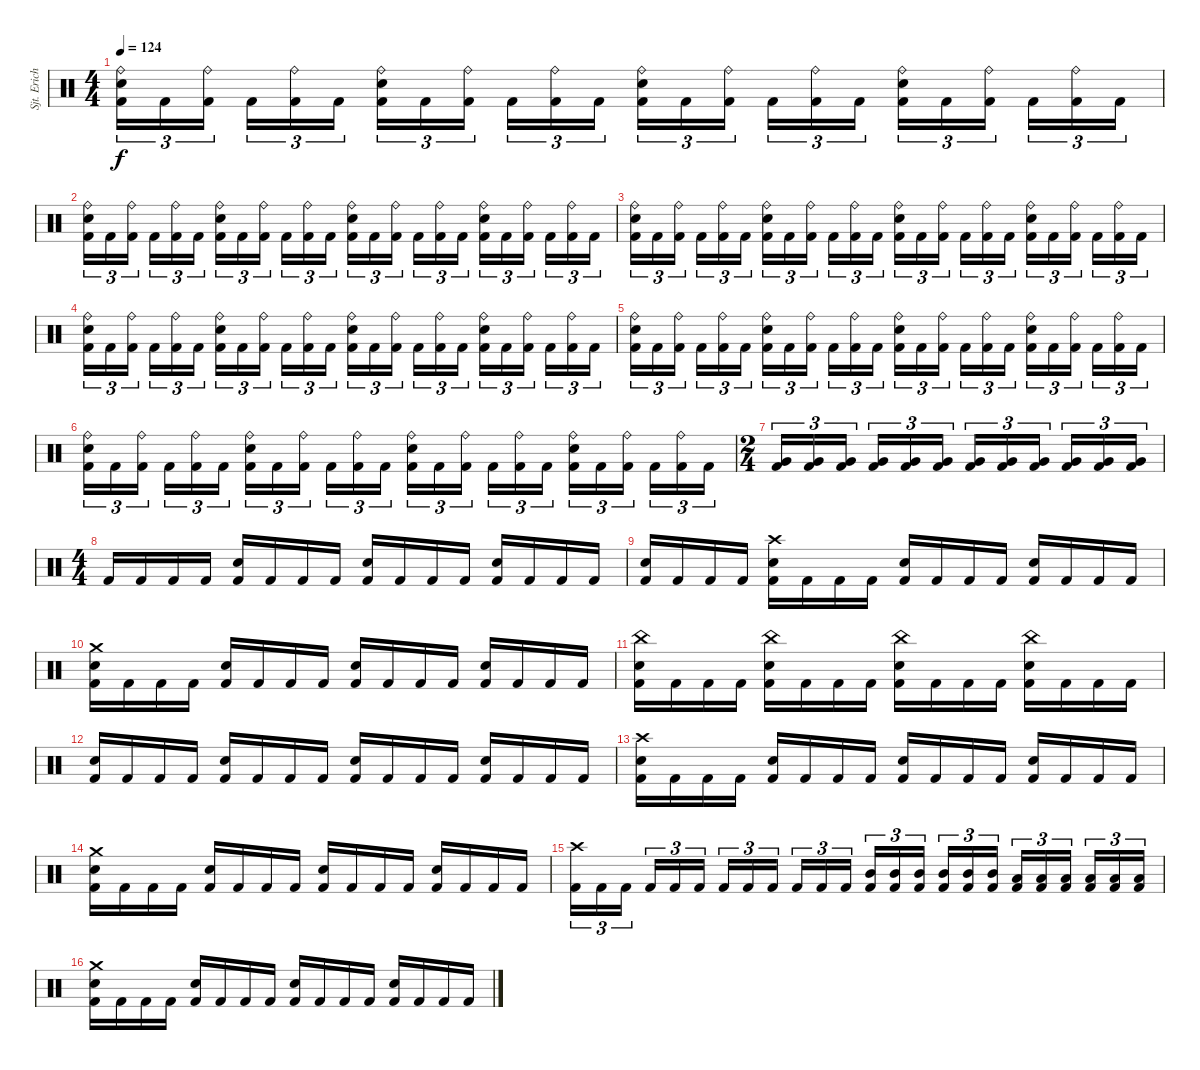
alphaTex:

\track ("Sjt. Erichsen" "Sjt. Erich") {instrument percussion}
\staff {score}
\articulation defaults
\ts (4 4)
\tempo 124
\clef neutral
\ks c
("Ride (bell)" "Electric Snare (hit)" "Kick (hit) 2").16{tu (3 2) dy f} "Kick (hit) 2".16{tu (3 2)} ("Ride (bell)" "Kick (hit) 2").16{tu (3 2) beam splitsecondary} "Kick (hit) 2".16{tu (3 2)} ("Ride (bell)" "Kick (hit) 2").16{tu (3 2)} "Kick (hit) 2".16{tu (3 2)} ("Ride (bell)" "Electric Snare (hit)" "Kick (hit) 2").16{tu (3 2)} "Kick (hit) 2".16{tu (3 2)} ("Ride (bell)" "Kick (hit) 2").16{tu (3 2) beam splitsecondary} "Kick (hit) 2".16{tu (3 2)} ("Ride (bell)" "Kick (hit) 2").16{tu (3 2)} "Kick (hit) 2".16{tu (3 2)} ("Ride (bell)" "Electric Snare (hit)" "Kick (hit) 2").16{tu (3 2)} "Kick (hit) 2".16{tu (3 2)} ("Ride (bell)" "Kick (hit) 2").16{tu (3 2) beam splitsecondary} "Kick (hit) 2".16{tu (3 2)} ("Ride (bell)" "Kick (hit) 2").16{tu (3 2)} "Kick (hit) 2".16{tu (3 2)} ("Ride (bell)" "Electric Snare (hit)" "Kick (hit) 2").16{tu (3 2)} "Kick (hit) 2".16{tu (3 2)} ("Ride (bell)" "Kick (hit) 2").16{tu (3 2) beam splitsecondary} "Kick (hit) 2".16{tu (3 2)} ("Ride (bell)" "Kick (hit) 2").16{tu (3 2)} "Kick (hit) 2".16{tu (3 2)} |
("Ride (bell)" "Electric Snare (hit)" "Kick (hit) 2").16{tu (3 2)} "Kick (hit) 2".16{tu (3 2)} ("Ride (bell)" "Kick (hit) 2").16{tu (3 2) beam splitsecondary} "Kick (hit) 2".16{tu (3 2)} ("Ride (bell)" "Kick (hit) 2").16{tu (3 2)} "Kick (hit) 2".16{tu (3 2)} ("Ride (bell)" "Electric Snare (hit)" "Kick (hit) 2").16{tu (3 2)} "Kick (hit) 2".16{tu (3 2)} ("Ride (bell)" "Kick (hit) 2").16{tu (3 2) beam splitsecondary} "Kick (hit) 2".16{tu (3 2)} ("Ride (bell)" "Kick (hit) 2").16{tu (3 2)} "Kick (hit) 2".16{tu (3 2)} ("Ride (bell)" "Electric Snare (hit)" "Kick (hit) 2").16{tu (3 2)} "Kick (hit) 2".16{tu (3 2)} ("Ride (bell)" "Kick (hit) 2").16{tu (3 2) beam splitsecondary} "Kick (hit) 2".16{tu (3 2)} ("Ride (bell)" "Kick (hit) 2").16{tu (3 2)} "Kick (hit) 2".16{tu (3 2)} ("Ride (bell)" "Electric Snare (hit)" "Kick (hit) 2").16{tu (3 2)} "Kick (hit) 2".16{tu (3 2)} ("Ride (bell)" "Kick (hit) 2").16{tu (3 2) beam splitsecondary} "Kick (hit) 2".16{tu (3 2)} ("Ride (bell)" "Kick (hit) 2").16{tu (3 2)} "Kick (hit) 2".16{tu (3 2)} |
("Ride (bell)" "Electric Snare (hit)" "Kick (hit) 2").16{tu (3 2)} "Kick (hit) 2".16{tu (3 2)} ("Ride (bell)" "Kick (hit) 2").16{tu (3 2) beam splitsecondary} "Kick (hit) 2".16{tu (3 2)} ("Ride (bell)" "Kick (hit) 2").16{tu (3 2)} "Kick (hit) 2".16{tu (3 2)} ("Ride (bell)" "Electric Snare (hit)" "Kick (hit) 2").16{tu (3 2)} "Kick (hit) 2".16{tu (3 2)} ("Ride (bell)" "Kick (hit) 2").16{tu (3 2) beam splitsecondary} "Kick (hit) 2".16{tu (3 2)} ("Ride (bell)" "Kick (hit) 2").16{tu (3 2)} "Kick (hit) 2".16{tu (3 2)} ("Ride (bell)" "Electric Snare (hit)" "Kick (hit) 2").16{tu (3 2)} "Kick (hit) 2".16{tu (3 2)} ("Ride (bell)" "Kick (hit) 2").16{tu (3 2) beam splitsecondary} "Kick (hit) 2".16{tu (3 2)} ("Ride (bell)" "Kick (hit) 2").16{tu (3 2)} "Kick (hit) 2".16{tu (3 2)} ("Ride (bell)" "Electric Snare (hit)" "Kick (hit) 2").16{tu (3 2)} "Kick (hit) 2".16{tu (3 2)} ("Ride (bell)" "Kick (hit) 2").16{tu (3 2) beam splitsecondary} "Kick (hit) 2".16{tu (3 2)} ("Ride (bell)" "Kick (hit) 2").16{tu (3 2)} "Kick (hit) 2".16{tu (3 2)} |
("Ride (bell)" "Electric Snare (hit)" "Kick (hit) 2").16{tu (3 2)} "Kick (hit) 2".16{tu (3 2)} ("Ride (bell)" "Kick (hit) 2").16{tu (3 2) beam splitsecondary} "Kick (hit) 2".16{tu (3 2)} ("Ride (bell)" "Kick (hit) 2").16{tu (3 2)} "Kick (hit) 2".16{tu (3 2)} ("Ride (bell)" "Electric Snare (hit)" "Kick (hit) 2").16{tu (3 2)} "Kick (hit) 2".16{tu (3 2)} ("Ride (bell)" "Kick (hit) 2").16{tu (3 2) beam splitsecondary} "Kick (hit) 2".16{tu (3 2)} ("Ride (bell)" "Kick (hit) 2").16{tu (3 2)} "Kick (hit) 2".16{tu (3 2)} ("Ride (bell)" "Electric Snare (hit)" "Kick (hit) 2").16{tu (3 2)} "Kick (hit) 2".16{tu (3 2)} ("Ride (bell)" "Kick (hit) 2").16{tu (3 2) beam splitsecondary} "Kick (hit) 2".16{tu (3 2)} ("Ride (bell)" "Kick (hit) 2").16{tu (3 2)} "Kick (hit) 2".16{tu (3 2)} ("Ride (bell)" "Electric Snare (hit)" "Kick (hit) 2").16{tu (3 2)} "Kick (hit) 2".16{tu (3 2)} ("Ride (bell)" "Kick (hit) 2").16{tu (3 2) beam splitsecondary} "Kick (hit) 2".16{tu (3 2)} ("Ride (bell)" "Kick (hit) 2").16{tu (3 2)} "Kick (hit) 2".16{tu (3 2)} |
("Ride (bell)" "Electric Snare (hit)" "Kick (hit) 2").16{tu (3 2)} "Kick (hit) 2".16{tu (3 2)} ("Ride (bell)" "Kick (hit) 2").16{tu (3 2) beam splitsecondary} "Kick (hit) 2".16{tu (3 2)} ("Ride (bell)" "Kick (hit) 2").16{tu (3 2)} "Kick (hit) 2".16{tu (3 2)} ("Ride (bell)" "Electric Snare (hit)" "Kick (hit) 2").16{tu (3 2)} "Kick (hit) 2".16{tu (3 2)} ("Ride (bell)" "Kick (hit) 2").16{tu (3 2) beam splitsecondary} "Kick (hit) 2".16{tu (3 2)} ("Ride (bell)" "Kick (hit) 2").16{tu (3 2)} "Kick (hit) 2".16{tu (3 2)} ("Ride (bell)" "Electric Snare (hit)" "Kick (hit) 2").16{tu (3 2)} "Kick (hit) 2".16{tu (3 2)} ("Ride (bell)" "Kick (hit) 2").16{tu (3 2) beam splitsecondary} "Kick (hit) 2".16{tu (3 2)} ("Ride (bell)" "Kick (hit) 2").16{tu (3 2)} "Kick (hit) 2".16{tu (3 2)} ("Ride (bell)" "Electric Snare (hit)" "Kick (hit) 2").16{tu (3 2)} "Kick (hit) 2".16{tu (3 2)} ("Ride (bell)" "Kick (hit) 2").16{tu (3 2) beam splitsecondary} "Kick (hit) 2".16{tu (3 2)} ("Ride (bell)" "Kick (hit) 2").16{tu (3 2)} "Kick (hit) 2".16{tu (3 2)} |
("Ride (bell)" "Electric Snare (hit)" "Kick (hit) 2").16{tu (3 2)} "Kick (hit) 2".16{tu (3 2)} ("Ride (bell)" "Kick (hit) 2").16{tu (3 2) beam splitsecondary} "Kick (hit) 2".16{tu (3 2)} ("Ride (bell)" "Kick (hit) 2").16{tu (3 2)} "Kick (hit) 2".16{tu (3 2)} ("Ride (bell)" "Electric Snare (hit)" "Kick (hit) 2").16{tu (3 2)} "Kick (hit) 2".16{tu (3 2)} ("Ride (bell)" "Kick (hit) 2").16{tu (3 2) beam splitsecondary} "Kick (hit) 2".16{tu (3 2)} ("Ride (bell)" "Kick (hit) 2").16{tu (3 2)} "Kick (hit) 2".16{tu (3 2)} ("Ride (bell)" "Electric Snare (hit)" "Kick (hit) 2").16{tu (3 2)} "Kick (hit) 2".16{tu (3 2)} ("Ride (bell)" "Kick (hit) 2").16{tu (3 2) beam splitsecondary} "Kick (hit) 2".16{tu (3 2)} ("Ride (bell)" "Kick (hit) 2").16{tu (3 2)} "Kick (hit) 2".16{tu (3 2)} ("Ride (bell)" "Electric Snare (hit)" "Kick (hit) 2").16{tu (3 2)} "Kick (hit) 2".16{tu (3 2)} ("Ride (bell)" "Kick (hit) 2").16{tu (3 2) beam splitsecondary} "Kick (hit) 2".16{tu (3 2)} ("Ride (bell)" "Kick (hit) 2").16{tu (3 2)} "Kick (hit) 2".16{tu (3 2)} |
\ts (2 4)
("Very Low Tom (hit)" "Kick (hit) 2").16{tu (3 2)} ("Very Low Tom (hit)" "Kick (hit) 2").16{tu (3 2)} ("Very Low Tom (hit)" "Kick (hit) 2").16{tu (3 2) beam splitsecondary} ("Very Low Tom (hit)" "Kick (hit) 2").16{tu (3 2)} ("Very Low Tom (hit)" "Kick (hit) 2").16{tu (3 2)} ("Very Low Tom (hit)" "Kick (hit) 2").16{tu (3 2)} ("Very Low Tom (hit)" "Kick (hit) 2").16{tu (3 2)} ("Very Low Tom (hit)" "Kick (hit) 2").16{tu (3 2)} ("Very Low Tom (hit)" "Kick (hit) 2").16{tu (3 2) beam splitsecondary} ("Very Low Tom (hit)" "Kick (hit) 2").16{tu (3 2)} ("Very Low Tom (hit)" "Kick (hit) 2").16{tu (3 2)} ("Very Low Tom (hit)" "Kick (hit) 2").16{tu (3 2)} |
\ts (4 4)
"Kick (hit) 2".16 "Kick (hit) 2".16 "Kick (hit) 2".16 "Kick (hit) 2".16 ("Electric Snare (hit)" "Kick (hit) 2").16 "Kick (hit) 2".16 "Kick (hit) 2".16 "Kick (hit) 2".16 ("Electric Snare (hit)" "Kick (hit) 2").16 "Kick (hit) 2".16 "Kick (hit) 2".16 "Kick (hit) 2".16 ("Electric Snare (hit)" "Kick (hit) 2").16 "Kick (hit) 2".16 "Kick (hit) 2".16 "Kick (hit) 2".16 |
("Electric Snare (hit)" "Kick (hit) 2").16 "Kick (hit) 2".16 "Kick (hit) 2".16 "Kick (hit) 2".16 ("Crash high (hit)" "Electric Snare (hit)" "Kick (hit) 2").16 "Kick (hit) 2".16 "Kick (hit) 2".16 "Kick (hit) 2".16 ("Electric Snare (hit)" "Kick (hit) 2").16 "Kick (hit) 2".16 "Kick (hit) 2".16 "Kick (hit) 2".16 ("Electric Snare (hit)" "Kick (hit) 2").16 "Kick (hit) 2".16 "Kick (hit) 2".16 "Kick (hit) 2".16 |
("Crash medium (hit)" "Electric Snare (hit)" "Kick (hit) 2").16 "Kick (hit) 2".16 "Kick (hit) 2".16 "Kick (hit) 2".16 ("Electric Snare (hit)" "Kick (hit) 2").16 "Kick (hit) 2".16 "Kick (hit) 2".16 "Kick (hit) 2".16 ("Electric Snare (hit)" "Kick (hit) 2").16 "Kick (hit) 2".16 "Kick (hit) 2".16 "Kick (hit) 2".16 ("Electric Snare (hit)" "Kick (hit) 2").16 "Kick (hit) 2".16 "Kick (hit) 2".16 "Kick (hit) 2".16 |
("China (hit)" "Electric Snare (hit)" "Kick (hit) 2").16 "Kick (hit) 2".16 "Kick (hit) 2".16 "Kick (hit) 2".16 ("China (hit)" "Electric Snare (hit)" "Kick (hit) 2").16 "Kick (hit) 2".16 "Kick (hit) 2".16 "Kick (hit) 2".16 ("China (hit)" "Electric Snare (hit)" "Kick (hit) 2").16 "Kick (hit) 2".16 "Kick (hit) 2".16 "Kick (hit) 2".16 ("China (hit)" "Electric Snare (hit)" "Kick (hit) 2").16 "Kick (hit) 2".16 "Kick (hit) 2".16 "Kick (hit) 2".16 |
("Electric Snare (hit)" "Kick (hit) 2").16 "Kick (hit) 2".16 "Kick (hit) 2".16 "Kick (hit) 2".16 ("Electric Snare (hit)" "Kick (hit) 2").16 "Kick (hit) 2".16 "Kick (hit) 2".16 "Kick (hit) 2".16 ("Electric Snare (hit)" "Kick (hit) 2").16 "Kick (hit) 2".16 "Kick (hit) 2".16 "Kick (hit) 2".16 ("Electric Snare (hit)" "Kick (hit) 2").16 "Kick (hit) 2".16 "Kick (hit) 2".16 "Kick (hit) 2".16 |
("Crash high (hit)" "Electric Snare (hit)" "Kick (hit) 2").16 "Kick (hit) 2".16 "Kick (hit) 2".16 "Kick (hit) 2".16 ("Electric Snare (hit)" "Kick (hit) 2").16 "Kick (hit) 2".16 "Kick (hit) 2".16 "Kick (hit) 2".16 ("Electric Snare (hit)" "Kick (hit) 2").16 "Kick (hit) 2".16 "Kick (hit) 2".16 "Kick (hit) 2".16 ("Electric Snare (hit)" "Kick (hit) 2").16 "Kick (hit) 2".16 "Kick (hit) 2".16 "Kick (hit) 2".16 |
("Crash medium (hit)" "Electric Snare (hit)" "Kick (hit) 2").16 "Kick (hit) 2".16 "Kick (hit) 2".16 "Kick (hit) 2".16 ("Electric Snare (hit)" "Kick (hit) 2").16 "Kick (hit) 2".16 "Kick (hit) 2".16 "Kick (hit) 2".16 ("Electric Snare (hit)" "Kick (hit) 2").16 "Kick (hit) 2".16 "Kick (hit) 2".16 "Kick (hit) 2".16 ("Electric Snare (hit)" "Kick (hit) 2").16 "Kick (hit) 2".16 "Kick (hit) 2".16 "Kick (hit) 2".16 |
("Crash high (hit)" "Kick (hit) 2").16{tu (3 2)} "Kick (hit) 2".16{tu (3 2)} "Kick (hit) 2".16{tu (3 2) beam splitsecondary} "Kick (hit) 2".16{tu (3 2)} "Kick (hit) 2".16{tu (3 2)} "Kick (hit) 2".16{tu (3 2)} "Kick (hit) 2".16{tu (3 2)} "Kick (hit) 2".16{tu (3 2)} "Kick (hit) 2".16{tu (3 2) beam splitsecondary} "Kick (hit) 2".16{tu (3 2)} "Kick (hit) 2".16{tu (3 2)} "Kick (hit) 2".16{tu (3 2)} ("Mid Tom (hit)" "Kick (hit) 2").16{tu (3 2)} ("Mid Tom (hit)" "Kick (hit) 2").16{tu (3 2)} ("Mid Tom (hit)" "Kick (hit) 2").16{tu (3 2) beam splitsecondary} ("Mid Tom (hit)" "Kick (hit) 2").16{tu (3 2)} ("Mid Tom (hit)" "Kick (hit) 2").16{tu (3 2)} ("Mid Tom (hit)" "Kick (hit) 2").16{tu (3 2)} ("Low Tom (hit)" "Kick (hit) 2").16{tu (3 2)} ("Low Tom (hit)" "Kick (hit) 2").16{tu (3 2)} ("Low Tom (hit)" "Kick (hit) 2").16{tu (3 2) beam splitsecondary} ("Low Tom (hit)" "Kick (hit) 2").16{tu (3 2)} ("Low Tom (hit)" "Kick (hit) 2").16{tu (3 2)} ("Low Tom (hit)" "Kick (hit) 2").16{tu (3 2)} |
("Crash medium (hit)" "Electric Snare (hit)" "Kick (hit) 2").16 "Kick (hit) 2".16 "Kick (hit) 2".16 "Kick (hit) 2".16 ("Electric Snare (hit)" "Kick (hit) 2").16 "Kick (hit) 2".16 "Kick (hit) 2".16 "Kick (hit) 2".16 ("Electric Snare (hit)" "Kick (hit) 2").16 "Kick (hit) 2".16 "Kick (hit) 2".16 "Kick (hit) 2".16 ("Electric Snare (hit)" "Kick (hit) 2").16 "Kick (hit) 2".16 "Kick (hit) 2".16 "Kick (hit) 2".16
